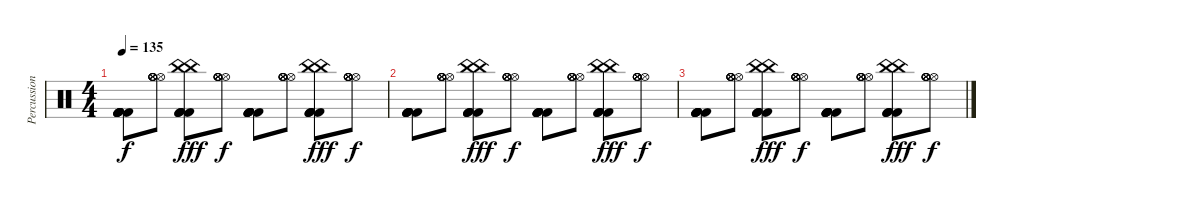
\track ("Percussion" "Percussion") {instrument percussion}
\staff {score}
\articulation defaults
\ts (4 4)
\tempo 135
\clef neutral
\ks c
("Kick (hit) 2" "Kick (hit) 2" "Kick (hit) 2" "Kick (hit) 2" "Kick (hit) 2" "Kick (hit) 2").8{dy f} ("Hi-Hat (open)" "Hi-Hat (open)" "Hi-Hat (open)" "Hi-Hat (open)" "Hi-Hat (open)" "Hi-Hat (open)").8 ("China (hit)" "China (hit)" "Kick (hit) 2" "Kick (hit) 2" "Kick (hit) 2" "Kick (hit) 2").8{dy fff} ("Hi-Hat (open)" "Hi-Hat (open)" "Hi-Hat (open)" "Hi-Hat (open)" "Hi-Hat (open)" "Hi-Hat (open)").8{dy f} ("Kick (hit) 2" "Kick (hit) 2" "Kick (hit) 2" "Kick (hit) 2" "Kick (hit) 2" "Kick (hit) 2").8 ("Hi-Hat (open)" "Hi-Hat (open)" "Hi-Hat (open)" "Hi-Hat (open)" "Hi-Hat (open)" "Hi-Hat (open)").8 ("China (hit)" "China (hit)" "Kick (hit) 2" "Kick (hit) 2" "Kick (hit) 2" "Kick (hit) 2").8{dy fff} ("Hi-Hat (open)" "Hi-Hat (open)" "Hi-Hat (open)" "Hi-Hat (open)" "Hi-Hat (open)" "Hi-Hat (open)").8{dy f} |
("Kick (hit) 2" "Kick (hit) 2" "Kick (hit) 2" "Kick (hit) 2" "Kick (hit) 2" "Kick (hit) 2").8 ("Hi-Hat (open)" "Hi-Hat (open)" "Hi-Hat (open)" "Hi-Hat (open)" "Hi-Hat (open)" "Hi-Hat (open)").8 ("China (hit)" "China (hit)" "Kick (hit) 2" "Kick (hit) 2" "Kick (hit) 2" "Kick (hit) 2").8{dy fff} ("Hi-Hat (open)" "Hi-Hat (open)" "Hi-Hat (open)" "Hi-Hat (open)" "Hi-Hat (open)" "Hi-Hat (open)").8{dy f} ("Kick (hit) 2" "Kick (hit) 2" "Kick (hit) 2" "Kick (hit) 2" "Kick (hit) 2" "Kick (hit) 2").8 ("Hi-Hat (open)" "Hi-Hat (open)" "Hi-Hat (open)" "Hi-Hat (open)" "Hi-Hat (open)" "Hi-Hat (open)").8 ("China (hit)" "China (hit)" "Kick (hit) 2" "Kick (hit) 2" "Kick (hit) 2" "Kick (hit) 2").8{dy fff} ("Hi-Hat (open)" "Hi-Hat (open)" "Hi-Hat (open)" "Hi-Hat (open)" "Hi-Hat (open)" "Hi-Hat (open)").8{dy f} |
("Kick (hit) 2" "Kick (hit) 2" "Kick (hit) 2" "Kick (hit) 2" "Kick (hit) 2" "Kick (hit) 2").8 ("Hi-Hat (open)" "Hi-Hat (open)" "Hi-Hat (open)" "Hi-Hat (open)" "Hi-Hat (open)" "Hi-Hat (open)").8 ("China (hit)" "China (hit)" "Kick (hit) 2" "Kick (hit) 2" "Kick (hit) 2" "Kick (hit) 2").8{dy fff} ("Hi-Hat (open)" "Hi-Hat (open)" "Hi-Hat (open)" "Hi-Hat (open)" "Hi-Hat (open)" "Hi-Hat (open)").8{dy f} ("Kick (hit) 2" "Kick (hit) 2" "Kick (hit) 2" "Kick (hit) 2" "Kick (hit) 2" "Kick (hit) 2").8 ("Hi-Hat (open)" "Hi-Hat (open)" "Hi-Hat (open)" "Hi-Hat (open)" "Hi-Hat (open)" "Hi-Hat (open)").8 ("China (hit)" "China (hit)" "Kick (hit) 2" "Kick (hit) 2" "Kick (hit) 2" "Kick (hit) 2").8{dy fff} ("Hi-Hat (open)" "Hi-Hat (open)" "Hi-Hat (open)" "Hi-Hat (open)" "Hi-Hat (open)" "Hi-Hat (open)").8{dy f}
